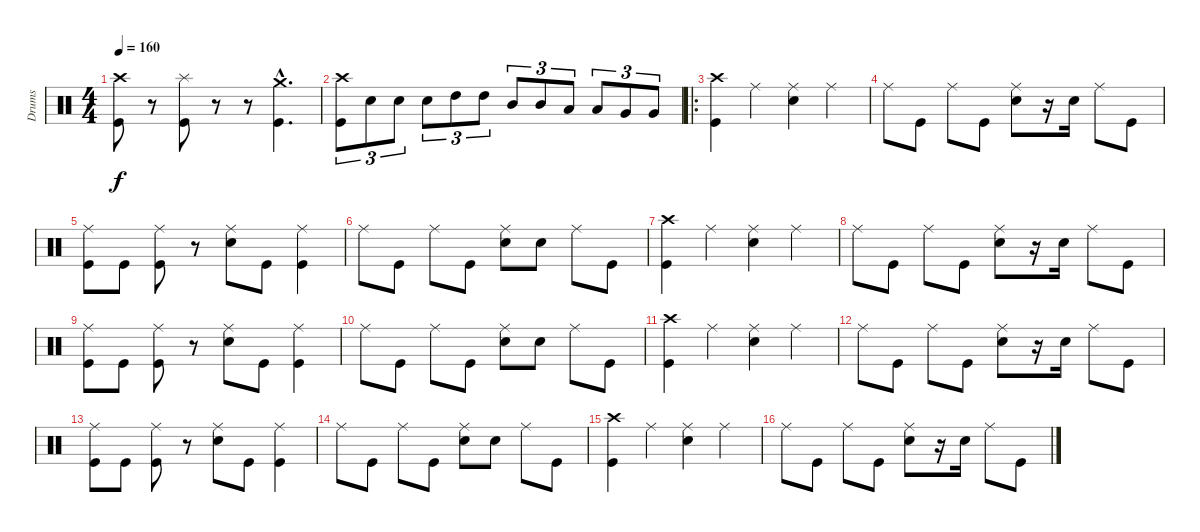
\track ("Drums" "Drums") {instrument percussion}
\staff {score}
\articulation defaults
\ts (4 4)
\tempo 160
\clef neutral
\ks c
("Crash high (hit)" "Kick (hit)").8{dy f} r.8 ("Splash (hit)" "Kick (hit)").8 r.8 r.8 ("Crash medium (hit)"{hac} "Kick (hit)"{hac}).4{d} |
("Crash high (hit)" "Kick (hit)").8{tu (3 2)} "Electric Snare (hit)".8{tu (3 2)} "Electric Snare (hit)".8{tu (3 2)} "Electric Snare (hit)".8{tu (3 2)} "High Tom (hit)".8{tu (3 2)} "High Tom (hit)".8{tu (3 2)} "Mid Tom (hit)".8{tu (3 2)} "Mid Tom (hit)".8{tu (3 2)} "Low Tom (hit)".8{tu (3 2)} "Low Tom (hit)".8{tu (3 2)} "Very Low Tom (hit)".8{tu (3 2)} "Very Low Tom (hit)".8{tu (3 2)} |
\ro
("Crash high (hit)" "Kick (hit)").4 "Ride (middle)".4 ("Ride (middle)" "Electric Snare (hit)").4 "Ride (middle)".4 |
"Ride (middle)".8 "Kick (hit)".8 "Ride (middle)".8 "Kick (hit)".8 ("Ride (middle)" "Electric Snare (hit)").8 r.16 "Electric Snare (hit)".16 "Ride (middle)".8 "Kick (hit)".8 |
("Ride (middle)" "Kick (hit)").8 "Kick (hit)".8 ("Ride (middle)" "Kick (hit)").8 r.8 ("Ride (middle)" "Electric Snare (hit)").8 "Kick (hit)".8 ("Ride (middle)" "Kick (hit)").4 |
"Ride (middle)".8 "Kick (hit)".8 "Ride (middle)".8 "Kick (hit)".8 ("Ride (middle)" "Electric Snare (hit)").8 "Electric Snare (hit)".8 "Ride (middle)".8 "Kick (hit)".8 |
("Crash high (hit)" "Kick (hit)").4 "Ride (middle)".4 ("Ride (middle)" "Electric Snare (hit)").4 "Ride (middle)".4 |
"Ride (middle)".8 "Kick (hit)".8 "Ride (middle)".8 "Kick (hit)".8 ("Ride (middle)" "Electric Snare (hit)").8 r.16 "Electric Snare (hit)".16 "Ride (middle)".8 "Kick (hit)".8 |
("Ride (middle)" "Kick (hit)").8 "Kick (hit)".8 ("Ride (middle)" "Kick (hit)").8 r.8 ("Ride (middle)" "Electric Snare (hit)").8 "Kick (hit)".8 ("Ride (middle)" "Kick (hit)").4 |
"Ride (middle)".8 "Kick (hit)".8 "Ride (middle)".8 "Kick (hit)".8 ("Ride (middle)" "Electric Snare (hit)").8 "Electric Snare (hit)".8 "Ride (middle)".8 "Kick (hit)".8 |
("Crash high (hit)" "Kick (hit)").4 "Ride (middle)".4 ("Ride (middle)" "Electric Snare (hit)").4 "Ride (middle)".4 |
"Ride (middle)".8 "Kick (hit)".8 "Ride (middle)".8 "Kick (hit)".8 ("Ride (middle)" "Electric Snare (hit)").8 r.16 "Electric Snare (hit)".16 "Ride (middle)".8 "Kick (hit)".8 |
("Ride (middle)" "Kick (hit)").8 "Kick (hit)".8 ("Ride (middle)" "Kick (hit)").8 r.8 ("Ride (middle)" "Electric Snare (hit)").8 "Kick (hit)".8 ("Ride (middle)" "Kick (hit)").4 |
"Ride (middle)".8 "Kick (hit)".8 "Ride (middle)".8 "Kick (hit)".8 ("Ride (middle)" "Electric Snare (hit)").8 "Electric Snare (hit)".8 "Ride (middle)".8 "Kick (hit)".8 |
("Crash high (hit)" "Kick (hit)").4 "Ride (middle)".4 ("Ride (middle)" "Electric Snare (hit)").4 "Ride (middle)".4 |
"Ride (middle)".8 "Kick (hit)".8 "Ride (middle)".8 "Kick (hit)".8 ("Ride (middle)" "Electric Snare (hit)").8 r.16 "Electric Snare (hit)".16 "Ride (middle)".8 "Kick (hit)".8
